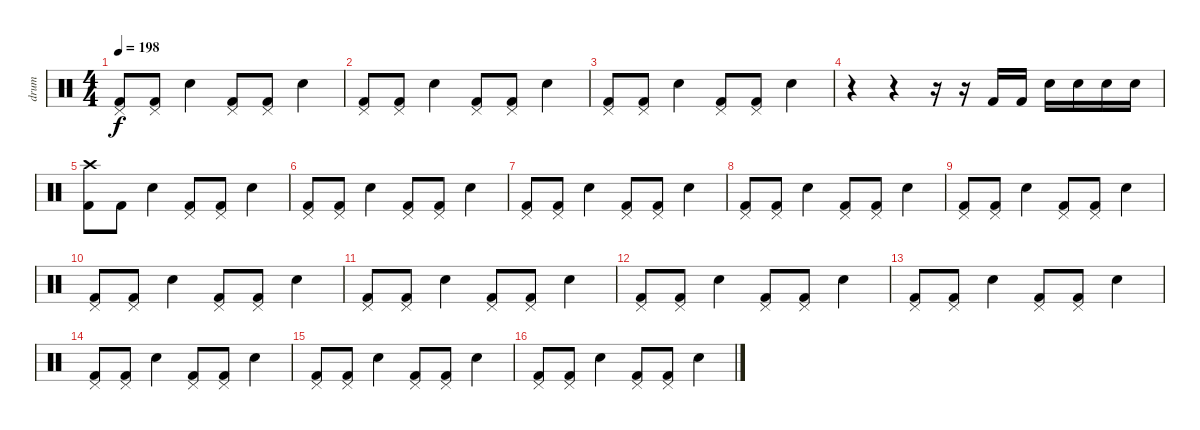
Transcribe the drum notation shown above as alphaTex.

\track ("drum" "drum") {instrument percussion}
\staff {score}
\articulation defaults
\ts (4 4)
\tempo 198
\clef neutral
\ks c
("Pedal Hi-Hat (hit)" "Kick (hit) 2").8{dy f} ("Pedal Hi-Hat (hit)" "Kick (hit) 2").8 "Electric Snare (hit)".4 ("Pedal Hi-Hat (hit)" "Kick (hit) 2").8 ("Pedal Hi-Hat (hit)" "Kick (hit) 2").8 "Electric Snare (hit)".4 |
("Pedal Hi-Hat (hit)" "Kick (hit) 2").8 ("Pedal Hi-Hat (hit)" "Kick (hit) 2").8 "Electric Snare (hit)".4 ("Pedal Hi-Hat (hit)" "Kick (hit) 2").8 ("Pedal Hi-Hat (hit)" "Kick (hit) 2").8 "Electric Snare (hit)".4 |
("Pedal Hi-Hat (hit)" "Kick (hit) 2").8 ("Pedal Hi-Hat (hit)" "Kick (hit) 2").8 "Electric Snare (hit)".4 ("Pedal Hi-Hat (hit)" "Kick (hit) 2").8 ("Pedal Hi-Hat (hit)" "Kick (hit) 2").8 "Electric Snare (hit)".4 |
r.4 r.4 r.16 r.16 "Kick (hit) 2".16 "Kick (hit) 2".16 "Electric Snare (hit)".16 "Electric Snare (hit)".16 "Electric Snare (hit)".16 "Electric Snare (hit)".16 |
("Crash high (hit)" "Kick (hit) 2").8 "Kick (hit) 2".8 "Electric Snare (hit)".4 ("Pedal Hi-Hat (hit)" "Kick (hit) 2").8 ("Pedal Hi-Hat (hit)" "Kick (hit) 2").8 "Electric Snare (hit)".4 |
("Pedal Hi-Hat (hit)" "Kick (hit) 2").8 ("Pedal Hi-Hat (hit)" "Kick (hit) 2").8 "Electric Snare (hit)".4 ("Pedal Hi-Hat (hit)" "Kick (hit) 2").8 ("Pedal Hi-Hat (hit)" "Kick (hit) 2").8 "Electric Snare (hit)".4 |
("Pedal Hi-Hat (hit)" "Kick (hit) 2").8 ("Pedal Hi-Hat (hit)" "Kick (hit) 2").8 "Electric Snare (hit)".4 ("Pedal Hi-Hat (hit)" "Kick (hit) 2").8 ("Pedal Hi-Hat (hit)" "Kick (hit) 2").8 "Electric Snare (hit)".4 |
("Pedal Hi-Hat (hit)" "Kick (hit) 2").8 ("Pedal Hi-Hat (hit)" "Kick (hit) 2").8 "Electric Snare (hit)".4 ("Pedal Hi-Hat (hit)" "Kick (hit) 2").8 ("Pedal Hi-Hat (hit)" "Kick (hit) 2").8 "Electric Snare (hit)".4 |
("Pedal Hi-Hat (hit)" "Kick (hit) 2").8 ("Pedal Hi-Hat (hit)" "Kick (hit) 2").8 "Electric Snare (hit)".4 ("Pedal Hi-Hat (hit)" "Kick (hit) 2").8 ("Pedal Hi-Hat (hit)" "Kick (hit) 2").8 "Electric Snare (hit)".4 |
("Pedal Hi-Hat (hit)" "Kick (hit) 2").8 ("Pedal Hi-Hat (hit)" "Kick (hit) 2").8 "Electric Snare (hit)".4 ("Pedal Hi-Hat (hit)" "Kick (hit) 2").8 ("Pedal Hi-Hat (hit)" "Kick (hit) 2").8 "Electric Snare (hit)".4 |
("Pedal Hi-Hat (hit)" "Kick (hit) 2").8 ("Pedal Hi-Hat (hit)" "Kick (hit) 2").8 "Electric Snare (hit)".4 ("Pedal Hi-Hat (hit)" "Kick (hit) 2").8 ("Pedal Hi-Hat (hit)" "Kick (hit) 2").8 "Electric Snare (hit)".4 |
("Pedal Hi-Hat (hit)" "Kick (hit) 2").8 ("Pedal Hi-Hat (hit)" "Kick (hit) 2").8 "Electric Snare (hit)".4 ("Pedal Hi-Hat (hit)" "Kick (hit) 2").8 ("Pedal Hi-Hat (hit)" "Kick (hit) 2").8 "Electric Snare (hit)".4 |
("Pedal Hi-Hat (hit)" "Kick (hit) 2").8 ("Pedal Hi-Hat (hit)" "Kick (hit) 2").8 "Electric Snare (hit)".4 ("Pedal Hi-Hat (hit)" "Kick (hit) 2").8 ("Pedal Hi-Hat (hit)" "Kick (hit) 2").8 "Electric Snare (hit)".4 |
("Pedal Hi-Hat (hit)" "Kick (hit) 2").8 ("Pedal Hi-Hat (hit)" "Kick (hit) 2").8 "Electric Snare (hit)".4 ("Pedal Hi-Hat (hit)" "Kick (hit) 2").8 ("Pedal Hi-Hat (hit)" "Kick (hit) 2").8 "Electric Snare (hit)".4 |
("Pedal Hi-Hat (hit)" "Kick (hit) 2").8 ("Pedal Hi-Hat (hit)" "Kick (hit) 2").8 "Electric Snare (hit)".4 ("Pedal Hi-Hat (hit)" "Kick (hit) 2").8 ("Pedal Hi-Hat (hit)" "Kick (hit) 2").8 "Electric Snare (hit)".4 |
("Pedal Hi-Hat (hit)" "Kick (hit) 2").8 ("Pedal Hi-Hat (hit)" "Kick (hit) 2").8 "Electric Snare (hit)".4 ("Pedal Hi-Hat (hit)" "Kick (hit) 2").8 ("Pedal Hi-Hat (hit)" "Kick (hit) 2").8 "Electric Snare (hit)".4
